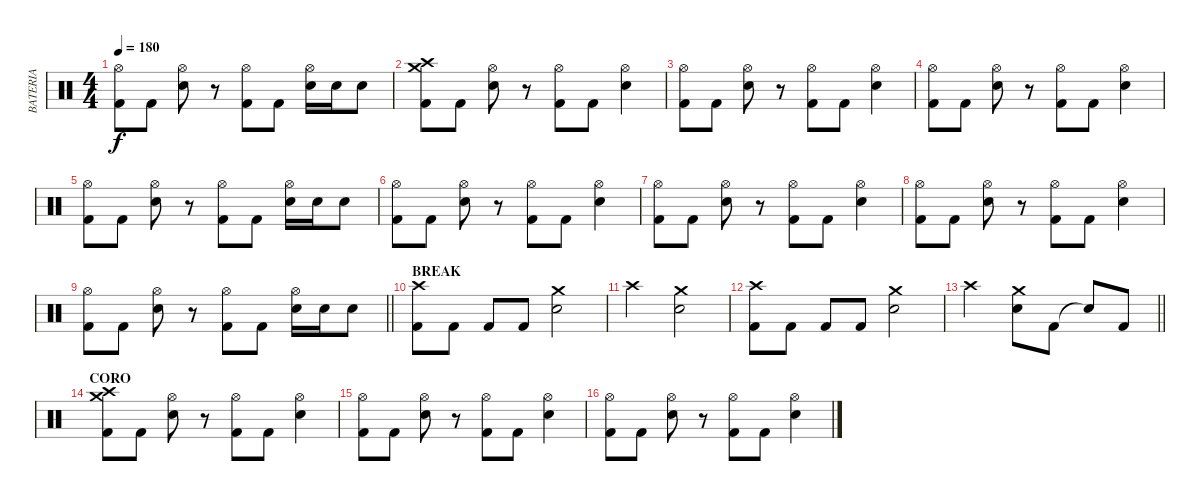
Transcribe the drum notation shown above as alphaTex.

\track ("BATERIA" "BATERIA") {instrument percussion}
\staff {score}
\articulation defaults
\ts (4 4)
\tempo 180
\clef neutral
\ks c
("Hi-Hat (open)" "Kick (hit) 2").8{dy f} "Kick (hit) 2".8 ("Hi-Hat (open)" "Electric Snare (hit)").8 r.8 ("Hi-Hat (open)" "Kick (hit) 2").8 "Kick (hit) 2".8 ("Hi-Hat (open)" "Electric Snare (hit)").16 "Electric Snare (hit)".16 "Electric Snare (hit)".8 |
("Crash high (hit)" "Crash medium (hit)" "Kick (hit) 2").8 "Kick (hit) 2".8 ("Hi-Hat (open)" "Electric Snare (hit)").8 r.8 ("Hi-Hat (open)" "Kick (hit) 2").8 "Kick (hit) 2".8 ("Hi-Hat (open)" "Electric Snare (hit)").4 |
("Hi-Hat (open)" "Kick (hit) 2").8 "Kick (hit) 2".8 ("Hi-Hat (open)" "Electric Snare (hit)").8 r.8 ("Hi-Hat (open)" "Kick (hit) 2").8 "Kick (hit) 2".8 ("Hi-Hat (open)" "Electric Snare (hit)").4 |
("Hi-Hat (open)" "Kick (hit) 2").8 "Kick (hit) 2".8 ("Hi-Hat (open)" "Electric Snare (hit)").8 r.8 ("Hi-Hat (open)" "Kick (hit) 2").8 "Kick (hit) 2".8 ("Hi-Hat (open)" "Electric Snare (hit)").4 |
("Hi-Hat (open)" "Kick (hit) 2").8 "Kick (hit) 2".8 ("Hi-Hat (open)" "Electric Snare (hit)").8 r.8 ("Hi-Hat (open)" "Kick (hit) 2").8 "Kick (hit) 2".8 ("Hi-Hat (open)" "Electric Snare (hit)").16 "Electric Snare (hit)".16 "Electric Snare (hit)".8 |
("Hi-Hat (open)" "Kick (hit) 2").8 "Kick (hit) 2".8 ("Hi-Hat (open)" "Electric Snare (hit)").8 r.8 ("Hi-Hat (open)" "Kick (hit) 2").8 "Kick (hit) 2".8 ("Hi-Hat (open)" "Electric Snare (hit)").4 |
("Hi-Hat (open)" "Kick (hit) 2").8 "Kick (hit) 2".8 ("Hi-Hat (open)" "Electric Snare (hit)").8 r.8 ("Hi-Hat (open)" "Kick (hit) 2").8 "Kick (hit) 2".8 ("Hi-Hat (open)" "Electric Snare (hit)").4 |
("Hi-Hat (open)" "Kick (hit) 2").8 "Kick (hit) 2".8 ("Hi-Hat (open)" "Electric Snare (hit)").8 r.8 ("Hi-Hat (open)" "Kick (hit) 2").8 "Kick (hit) 2".8 ("Hi-Hat (open)" "Electric Snare (hit)").4 |
\barLineRight lightlight
("Hi-Hat (open)" "Kick (hit) 2").8 "Kick (hit) 2".8 ("Hi-Hat (open)" "Electric Snare (hit)").8 r.8 ("Hi-Hat (open)" "Kick (hit) 2").8 "Kick (hit) 2".8 ("Hi-Hat (open)" "Electric Snare (hit)").16 "Electric Snare (hit)".16 "Electric Snare (hit)".8 |
\section ("" "BREAK")
("Crash high (hit)" "Kick (hit) 2").8 "Kick (hit) 2".8 "Kick (hit) 2".8 "Kick (hit) 2".8 ("Crash medium (hit)" "Electric Snare (hit)").2 |
"Crash high (hit)".2 ("Crash medium (hit)" "Electric Snare (hit)").2 |
("Crash high (hit)" "Kick (hit) 2").8 "Kick (hit) 2".8 "Kick (hit) 2".8 "Kick (hit) 2".8 ("Crash medium (hit)" "Electric Snare (hit)").2 |
\barLineRight lightlight "Crash high (hit)".2
("Crash medium (hit)" "Electric Snare (hit)").8 "Kick (hit) 2".8 "Snare (hit)"{t}.8 "Kick (hit) 2".8 |
\section ("" "CORO")
("Crash high (hit)" "Crash medium (hit)" "Kick (hit) 2").8 "Kick (hit) 2".8 ("Hi-Hat (open)" "Electric Snare (hit)").8 r.8 ("Hi-Hat (open)" "Kick (hit) 2").8 "Kick (hit) 2".8 ("Hi-Hat (open)" "Electric Snare (hit)").4 |
("Hi-Hat (open)" "Kick (hit) 2").8 "Kick (hit) 2".8 ("Hi-Hat (open)" "Electric Snare (hit)").8 r.8 ("Hi-Hat (open)" "Kick (hit) 2").8 "Kick (hit) 2".8 ("Hi-Hat (open)" "Electric Snare (hit)").4 |
("Hi-Hat (open)" "Kick (hit) 2").8 "Kick (hit) 2".8 ("Hi-Hat (open)" "Electric Snare (hit)").8 r.8 ("Hi-Hat (open)" "Kick (hit) 2").8 "Kick (hit) 2".8 ("Hi-Hat (open)" "Electric Snare (hit)").4
